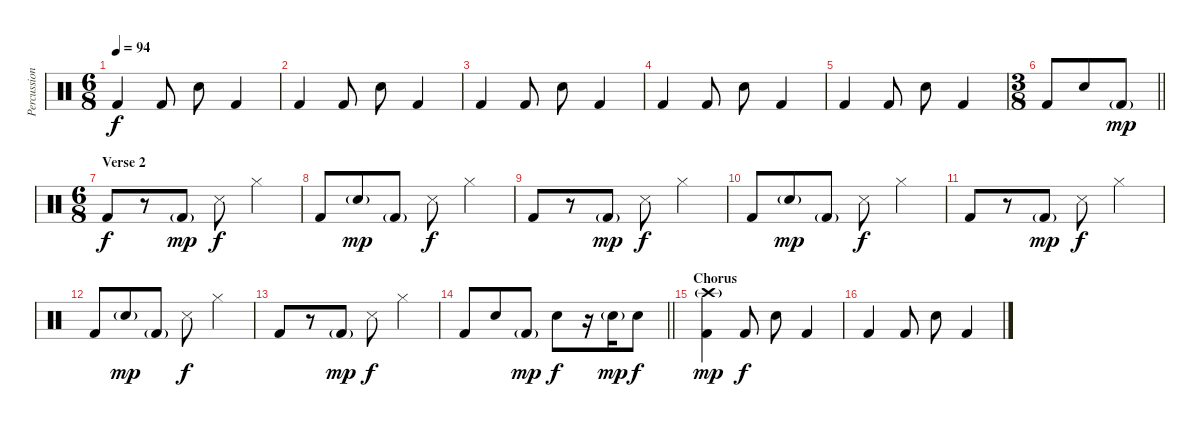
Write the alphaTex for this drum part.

\track ("Percussion" "Percussion") {instrument percussion}
\staff {score}
\articulation defaults
\ts (6 8)
\tempo 94
\clef neutral
\ks c "Kick (hit) 2".4{dy f} "Kick (hit) 2".8 "Snare (hit) 2".8 "Kick (hit) 2".4
|
"Kick (hit) 2".4 "Kick (hit) 2".8 "Snare (hit) 2".8 "Kick (hit) 2".4 |
"Kick (hit) 2".4 "Kick (hit) 2".8 "Snare (hit) 2".8 "Kick (hit) 2".4 |
"Kick (hit) 2".4 "Kick (hit) 2".8 "Snare (hit) 2".8 "Kick (hit) 2".4 |
"Kick (hit) 2".4 "Kick (hit) 2".8 "Snare (hit) 2".8 "Kick (hit) 2".4 |
\ts (3 8)
\barLineRight lightlight "Kick (hit) 2".8 "Snare (hit) 2".8 "Kick (hit) 2"{g}.8{dy mp}
|
\ts (6 8)
\section ("" "Verse 2")
"Kick (hit) 2".8{dy f} r.8 "Kick (hit) 2"{g}.8{dy mp} "Snare (side stick) 3".8{dy f} "Hi-Hat (closed)".4 |
"Kick (hit) 2".8 "Snare (hit) 2"{g}.8{dy mp} "Kick (hit) 2"{g}.8 "Snare (side stick) 3".8{dy f} "Hi-Hat (closed)".4 |
"Kick (hit) 2".8 r.8 "Kick (hit) 2"{g}.8{dy mp} "Snare (side stick) 3".8{dy f} "Hi-Hat (closed)".4 |
"Kick (hit) 2".8 "Snare (hit) 2"{g}.8{dy mp} "Kick (hit) 2"{g}.8 "Snare (side stick) 3".8{dy f} "Hi-Hat (closed)".4 |
"Kick (hit) 2".8 r.8 "Kick (hit) 2"{g}.8{dy mp} "Snare (side stick) 3".8{dy f} "Hi-Hat (closed)".4 |
"Kick (hit) 2".8 "Snare (hit) 2"{g}.8{dy mp} "Kick (hit) 2"{g}.8 "Snare (side stick) 3".8{dy f} "Hi-Hat (closed)".4 |
"Kick (hit) 2".8 r.8 "Kick (hit) 2"{g}.8{dy mp} "Snare (side stick) 3".8{dy f} "Hi-Hat (closed)".4 |
\barLineRight lightlight "Kick (hit) 2".8 "Snare (hit) 2".8 "Kick (hit) 2"{g}.8{dy mp} "Snare (hit) 2".8{dy f}
r.16 "Snare (hit) 2"{g}.16{dy mp} "Snare (hit) 2".8{dy f} |
\section ("" "Chorus")
("Crash high (hit)"{g} "Kick (hit) 2").4{dy mp} "Kick (hit) 2".8{dy f} "Snare (hit) 2".8 "Kick (hit) 2".4 |
"Kick (hit) 2".4 "Kick (hit) 2".8 "Snare (hit) 2".8 "Kick (hit) 2".4
